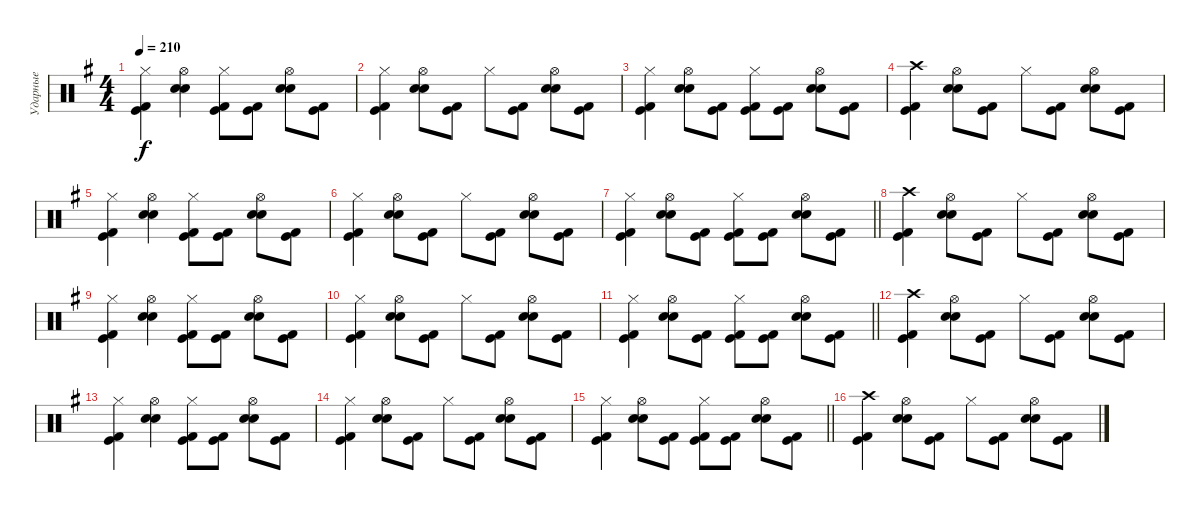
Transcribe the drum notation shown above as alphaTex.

\track ("Ударные" "Ударные") {instrument percussion}
\staff {score}
\articulation defaults
\ts (4 4)
\tempo 210
\clef neutral
\ks g
("Hi-Hat (closed)" "Kick (hit) 2" "Kick (hit)").4{dy f} ("Hi-Hat (open)" "Electric Snare (hit)" "Snare (hit) 2").4 ("Hi-Hat (closed)" "Kick (hit) 2" "Kick (hit)").8 ("Kick (hit) 2" "Kick (hit)").8 ("Hi-Hat (open)" "Electric Snare (hit)" "Snare (hit) 2").8 ("Kick (hit) 2" "Kick (hit)").8 |
("Hi-Hat (closed)" "Kick (hit) 2" "Kick (hit)").4 ("Hi-Hat (open)" "Electric Snare (hit)" "Snare (hit) 2").8 ("Kick (hit) 2" "Kick (hit)").8 "Hi-Hat (closed)".8 ("Kick (hit) 2" "Kick (hit)").8 ("Hi-Hat (open)" "Electric Snare (hit)" "Snare (hit) 2").8 ("Kick (hit) 2" "Kick (hit)").8 |
("Hi-Hat (closed)" "Kick (hit) 2" "Kick (hit)").4 ("Hi-Hat (open)" "Electric Snare (hit)" "Snare (hit) 2").8 ("Kick (hit) 2" "Kick (hit)").8 ("Hi-Hat (closed)" "Kick (hit) 2" "Kick (hit)").8 ("Kick (hit) 2" "Kick (hit)").8 ("Hi-Hat (open)" "Electric Snare (hit)" "Snare (hit) 2").8 ("Kick (hit) 2" "Kick (hit)").8 |
("Crash high (hit)" "Kick (hit) 2" "Kick (hit)").4 ("Hi-Hat (open)" "Electric Snare (hit)" "Snare (hit) 2").8 ("Kick (hit) 2" "Kick (hit)").8 "Hi-Hat (closed)".8 ("Kick (hit) 2" "Kick (hit)").8 ("Hi-Hat (open)" "Electric Snare (hit)" "Snare (hit) 2").8 ("Kick (hit) 2" "Kick (hit)").8 |
("Hi-Hat (closed)" "Kick (hit) 2" "Kick (hit)").4 ("Hi-Hat (open)" "Electric Snare (hit)" "Snare (hit) 2").4 ("Hi-Hat (closed)" "Kick (hit) 2" "Kick (hit)").8 ("Kick (hit) 2" "Kick (hit)").8 ("Hi-Hat (open)" "Electric Snare (hit)" "Snare (hit) 2").8 ("Kick (hit) 2" "Kick (hit)").8 |
("Hi-Hat (closed)" "Kick (hit) 2" "Kick (hit)").4 ("Hi-Hat (open)" "Electric Snare (hit)" "Snare (hit) 2").8 ("Kick (hit) 2" "Kick (hit)").8 "Hi-Hat (closed)".8 ("Kick (hit) 2" "Kick (hit)").8 ("Hi-Hat (open)" "Electric Snare (hit)" "Snare (hit) 2").8 ("Kick (hit) 2" "Kick (hit)").8 |
\barLineRight lightlight
("Hi-Hat (closed)" "Kick (hit) 2" "Kick (hit)").4 ("Hi-Hat (open)" "Electric Snare (hit)" "Snare (hit) 2").8 ("Kick (hit) 2" "Kick (hit)").8 ("Hi-Hat (closed)" "Kick (hit) 2" "Kick (hit)").8 ("Kick (hit) 2" "Kick (hit)").8 ("Hi-Hat (open)" "Electric Snare (hit)" "Snare (hit) 2").8 ("Kick (hit) 2" "Kick (hit)").8 |
("Crash high (hit)" "Kick (hit) 2" "Kick (hit)").4 ("Hi-Hat (open)" "Electric Snare (hit)" "Snare (hit) 2").8 ("Kick (hit) 2" "Kick (hit)").8 "Hi-Hat (closed)".8 ("Kick (hit) 2" "Kick (hit)").8 ("Hi-Hat (open)" "Electric Snare (hit)" "Snare (hit) 2").8 ("Kick (hit) 2" "Kick (hit)").8 |
("Hi-Hat (closed)" "Kick (hit) 2" "Kick (hit)").4 ("Hi-Hat (open)" "Electric Snare (hit)" "Snare (hit) 2").4 ("Hi-Hat (closed)" "Kick (hit) 2" "Kick (hit)").8 ("Kick (hit) 2" "Kick (hit)").8 ("Hi-Hat (open)" "Electric Snare (hit)" "Snare (hit) 2").8 ("Kick (hit) 2" "Kick (hit)").8 |
("Hi-Hat (closed)" "Kick (hit) 2" "Kick (hit)").4 ("Hi-Hat (open)" "Electric Snare (hit)" "Snare (hit) 2").8 ("Kick (hit) 2" "Kick (hit)").8 "Hi-Hat (closed)".8 ("Kick (hit) 2" "Kick (hit)").8 ("Hi-Hat (open)" "Electric Snare (hit)" "Snare (hit) 2").8 ("Kick (hit) 2" "Kick (hit)").8 |
\barLineRight lightlight
("Hi-Hat (closed)" "Kick (hit) 2" "Kick (hit)").4 ("Hi-Hat (open)" "Electric Snare (hit)" "Snare (hit) 2").8 ("Kick (hit) 2" "Kick (hit)").8 ("Hi-Hat (closed)" "Kick (hit) 2" "Kick (hit)").8 ("Kick (hit) 2" "Kick (hit)").8 ("Hi-Hat (open)" "Electric Snare (hit)" "Snare (hit) 2").8 ("Kick (hit) 2" "Kick (hit)").8 |
("Crash high (hit)" "Kick (hit) 2" "Kick (hit)").4 ("Hi-Hat (open)" "Electric Snare (hit)" "Snare (hit) 2").8 ("Kick (hit) 2" "Kick (hit)").8 "Hi-Hat (closed)".8 ("Kick (hit) 2" "Kick (hit)").8 ("Hi-Hat (open)" "Electric Snare (hit)" "Snare (hit) 2").8 ("Kick (hit) 2" "Kick (hit)").8 |
("Hi-Hat (closed)" "Kick (hit) 2" "Kick (hit)").4 ("Hi-Hat (open)" "Electric Snare (hit)" "Snare (hit) 2").4 ("Hi-Hat (closed)" "Kick (hit) 2" "Kick (hit)").8 ("Kick (hit) 2" "Kick (hit)").8 ("Hi-Hat (open)" "Electric Snare (hit)" "Snare (hit) 2").8 ("Kick (hit) 2" "Kick (hit)").8 |
("Hi-Hat (closed)" "Kick (hit) 2" "Kick (hit)").4 ("Hi-Hat (open)" "Electric Snare (hit)" "Snare (hit) 2").8 ("Kick (hit) 2" "Kick (hit)").8 "Hi-Hat (closed)".8 ("Kick (hit) 2" "Kick (hit)").8 ("Hi-Hat (open)" "Electric Snare (hit)" "Snare (hit) 2").8 ("Kick (hit) 2" "Kick (hit)").8 |
\barLineRight lightlight
("Hi-Hat (closed)" "Kick (hit) 2" "Kick (hit)").4 ("Hi-Hat (open)" "Electric Snare (hit)" "Snare (hit) 2").8 ("Kick (hit) 2" "Kick (hit)").8 ("Hi-Hat (closed)" "Kick (hit) 2" "Kick (hit)").8 ("Kick (hit) 2" "Kick (hit)").8 ("Hi-Hat (open)" "Electric Snare (hit)" "Snare (hit) 2").8 ("Kick (hit) 2" "Kick (hit)").8 |
("Crash high (hit)" "Kick (hit) 2" "Kick (hit)").4 ("Hi-Hat (open)" "Electric Snare (hit)" "Snare (hit) 2").8 ("Kick (hit) 2" "Kick (hit)").8 "Hi-Hat (closed)".8 ("Kick (hit) 2" "Kick (hit)").8 ("Hi-Hat (open)" "Electric Snare (hit)" "Snare (hit) 2").8 ("Kick (hit) 2" "Kick (hit)").8
